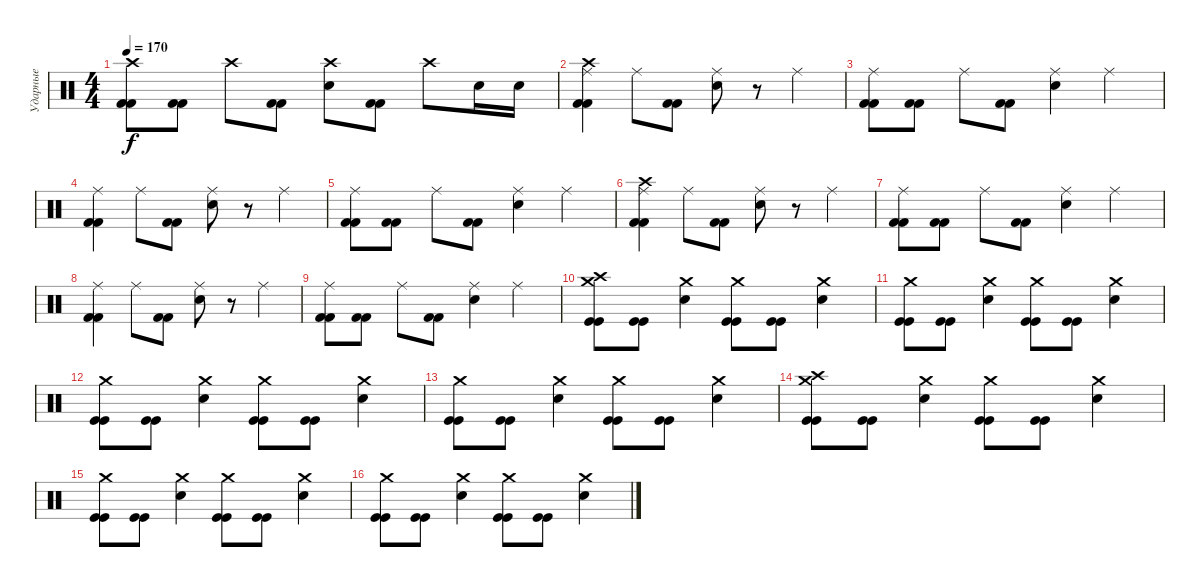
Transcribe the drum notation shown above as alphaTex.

\track ("Ударные" "Ударные") {instrument percussion}
\staff {score}
\articulation defaults
\ts (4 4)
\tempo 170
\clef neutral
\ks c
("Crash high (hit)" "Kick (hit) 2" "Kick (hit) 2").8{dy f} ("Kick (hit) 2" "Kick (hit) 2").8 "Crash high (hit)".8 ("Kick (hit) 2" "Kick (hit) 2").8 ("Crash high (hit)" "Electric Snare (hit)").8 ("Kick (hit) 2" "Kick (hit) 2").8 "Crash high (hit)".8 "Electric Snare (hit)".16 "Electric Snare (hit)".16 |
("Crash high (hit)" "Ride (middle)" "Kick (hit) 2" "Kick (hit) 2").4 "Ride (middle)".8 ("Kick (hit) 2" "Kick (hit) 2").8 ("Ride (middle)" "Electric Snare (hit)").8 r.8 "Ride (middle)".4 |
("Ride (middle)" "Kick (hit) 2" "Kick (hit) 2").8 ("Kick (hit) 2" "Kick (hit) 2").8 "Ride (middle)".8 ("Kick (hit) 2" "Kick (hit) 2").8 ("Ride (middle)" "Electric Snare (hit)").4 "Ride (middle)".4 |
("Ride (middle)" "Kick (hit) 2" "Kick (hit) 2").4 "Ride (middle)".8 ("Kick (hit) 2" "Kick (hit) 2").8 ("Ride (middle)" "Electric Snare (hit)").8 r.8 "Ride (middle)".4 |
("Ride (middle)" "Kick (hit) 2" "Kick (hit) 2").8 ("Kick (hit) 2" "Kick (hit) 2").8 "Ride (middle)".8 ("Kick (hit) 2" "Kick (hit) 2").8 ("Ride (middle)" "Electric Snare (hit)").4 "Ride (middle)".4 |
("Crash high (hit)" "Ride (middle)" "Kick (hit) 2" "Kick (hit) 2").4 "Ride (middle)".8 ("Kick (hit) 2" "Kick (hit) 2").8 ("Ride (middle)" "Electric Snare (hit)").8 r.8 "Ride (middle)".4 |
("Ride (middle)" "Kick (hit) 2" "Kick (hit) 2").8 ("Kick (hit) 2" "Kick (hit) 2").8 "Ride (middle)".8 ("Kick (hit) 2" "Kick (hit) 2").8 ("Ride (middle)" "Electric Snare (hit)").4 "Ride (middle)".4 |
("Ride (middle)" "Kick (hit) 2" "Kick (hit) 2").4 "Ride (middle)".8 ("Kick (hit) 2" "Kick (hit) 2").8 ("Ride (middle)" "Electric Snare (hit)").8 r.8 "Ride (middle)".4 |
("Ride (middle)" "Kick (hit) 2" "Kick (hit) 2").8 ("Kick (hit) 2" "Kick (hit) 2").8 "Ride (middle)".8 ("Kick (hit) 2" "Kick (hit) 2").8 ("Ride (middle)" "Electric Snare (hit)").4 "Ride (middle)".4 |
("Crash high (hit)" "Crash medium (hit)" "Kick (hit)" "Kick (hit)").8 ("Kick (hit)" "Kick (hit)").8 ("Crash medium (hit)" "Electric Snare (hit)").4 ("Crash medium (hit)" "Kick (hit)" "Kick (hit)").8 ("Kick (hit)" "Kick (hit)").8 ("Crash medium (hit)" "Electric Snare (hit)").4 |
("Crash medium (hit)" "Kick (hit)" "Kick (hit)").8 ("Kick (hit)" "Kick (hit)").8 ("Crash medium (hit)" "Electric Snare (hit)").4 ("Crash medium (hit)" "Kick (hit)" "Kick (hit)").8 ("Kick (hit)" "Kick (hit)").8 ("Crash medium (hit)" "Electric Snare (hit)").4 |
("Crash medium (hit)" "Kick (hit)" "Kick (hit)").8 ("Kick (hit)" "Kick (hit)").8 ("Crash medium (hit)" "Electric Snare (hit)").4 ("Crash medium (hit)" "Kick (hit)" "Kick (hit)").8 ("Kick (hit)" "Kick (hit)").8 ("Crash medium (hit)" "Electric Snare (hit)").4 |
("Crash medium (hit)" "Kick (hit)" "Kick (hit)").8 ("Kick (hit)" "Kick (hit)").8 ("Crash medium (hit)" "Electric Snare (hit)").4 ("Crash medium (hit)" "Kick (hit)" "Kick (hit)").8 ("Kick (hit)" "Kick (hit)").8 ("Crash medium (hit)" "Electric Snare (hit)").4 |
("Crash high (hit)" "Crash medium (hit)" "Kick (hit)" "Kick (hit)").8 ("Kick (hit)" "Kick (hit)").8 ("Crash medium (hit)" "Electric Snare (hit)").4 ("Crash medium (hit)" "Kick (hit)" "Kick (hit)").8 ("Kick (hit)" "Kick (hit)").8 ("Crash medium (hit)" "Electric Snare (hit)").4 |
("Crash medium (hit)" "Kick (hit)" "Kick (hit)").8 ("Kick (hit)" "Kick (hit)").8 ("Crash medium (hit)" "Electric Snare (hit)").4 ("Crash medium (hit)" "Kick (hit)" "Kick (hit)").8 ("Kick (hit)" "Kick (hit)").8 ("Crash medium (hit)" "Electric Snare (hit)").4 |
("Crash medium (hit)" "Kick (hit)" "Kick (hit)").8 ("Kick (hit)" "Kick (hit)").8 ("Crash medium (hit)" "Electric Snare (hit)").4 ("Crash medium (hit)" "Kick (hit)" "Kick (hit)").8 ("Kick (hit)" "Kick (hit)").8 ("Crash medium (hit)" "Electric Snare (hit)").4
